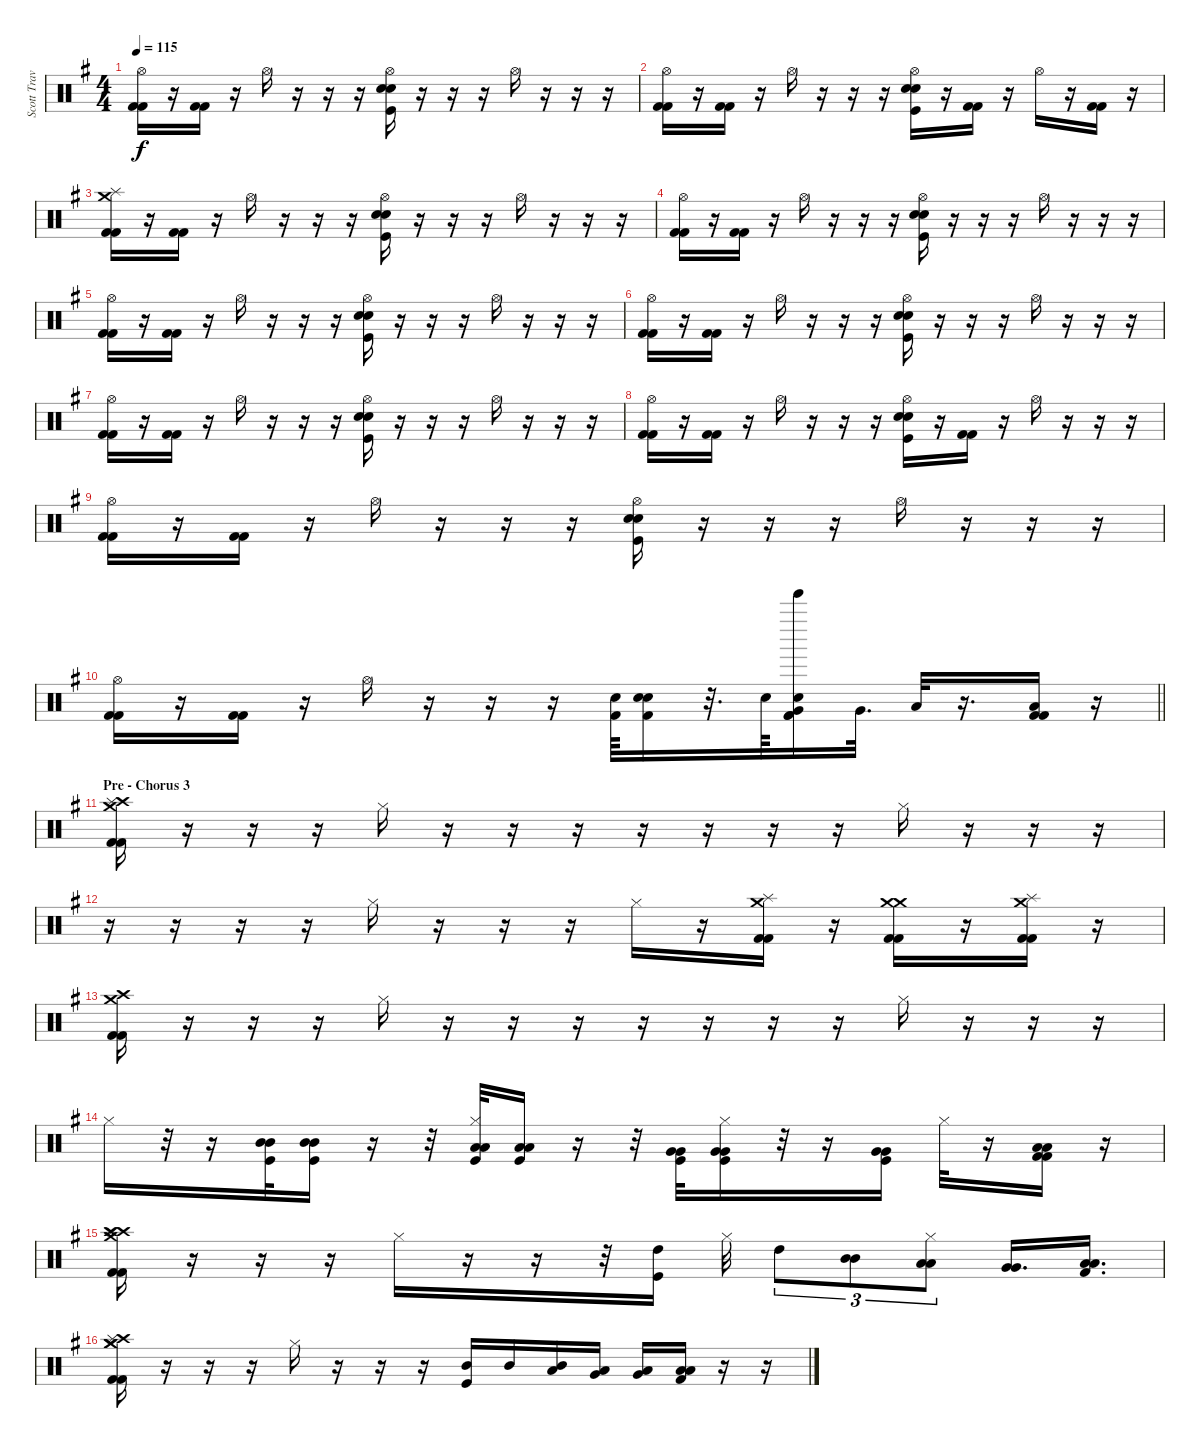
\track ("Scott Travis" "Scott Trav") {instrument percussion}
\staff {score}
\articulation defaults
\ts (4 4)
\tempo 115
\clef neutral
\ks eminor
("Hi-Hat (open)" "Kick (hit) 2" "Kick (hit) 2").16{dy f} r.16 ("Kick (hit) 2" "Kick (hit) 2").16 r.16 "Hi-Hat (open)".16 r.16 r.16 r.16 ("Hi-Hat (open)" "Snare (hit) 2" "Snare (hit) 2" "Kick (hit)").16 r.16 r.16 r.16 "Hi-Hat (open)".16 r.16 r.16 r.16 |
("Hi-Hat (open)" "Kick (hit) 2" "Kick (hit) 2").16 r.16 ("Kick (hit) 2" "Kick (hit) 2").16 r.16 "Hi-Hat (open)".16 r.16 r.16 r.16 ("Hi-Hat (open)" "Snare (hit) 2" "Snare (hit) 2" "Kick (hit)").16 r.16 ("Kick (hit) 2" "Kick (hit) 2").16 r.16 "Hi-Hat (open)".16 r.16 ("Kick (hit) 2" "Kick (hit) 2").16 r.16 |
("Crash medium (hit)" "Splash (hit)" "Kick (hit) 2" "Kick (hit) 2").16 r.16 ("Kick (hit) 2" "Kick (hit) 2").16 r.16 "Hi-Hat (open)".16 r.16 r.16 r.16 ("Hi-Hat (open)" "Snare (hit) 2" "Snare (hit) 2" "Kick (hit)").16 r.16 r.16 r.16 "Hi-Hat (open)".16 r.16 r.16 r.16 |
("Hi-Hat (open)" "Kick (hit) 2" "Kick (hit) 2").16 r.16 ("Kick (hit) 2" "Kick (hit) 2").16 r.16 "Hi-Hat (open)".16 r.16 r.16 r.16 ("Hi-Hat (open)" "Snare (hit) 2" "Snare (hit) 2" "Kick (hit)").16 r.16 r.16 r.16 "Hi-Hat (open)".16 r.16 r.16 r.16 |
("Hi-Hat (open)" "Kick (hit) 2" "Kick (hit) 2").16 r.16 ("Kick (hit) 2" "Kick (hit) 2").16 r.16 "Hi-Hat (open)".16 r.16 r.16 r.16 ("Hi-Hat (open)" "Snare (hit) 2" "Snare (hit) 2" "Kick (hit)").16 r.16 r.16 r.16 "Hi-Hat (open)".16 r.16 r.16 r.16 |
("Hi-Hat (open)" "Kick (hit) 2" "Kick (hit) 2").16 r.16 ("Kick (hit) 2" "Kick (hit) 2").16 r.16 "Hi-Hat (open)".16 r.16 r.16 r.16 ("Hi-Hat (open)" "Snare (hit) 2" "Snare (hit) 2" "Kick (hit)").16 r.16 r.16 r.16 "Hi-Hat (open)".16 r.16 r.16 r.16 |
("Hi-Hat (open)" "Kick (hit) 2" "Kick (hit) 2").16 r.16 ("Kick (hit) 2" "Kick (hit) 2").16 r.16 "Hi-Hat (open)".16 r.16 r.16 r.16 ("Hi-Hat (open)" "Snare (hit) 2" "Snare (hit) 2" "Kick (hit)").16 r.16 r.16 r.16 "Hi-Hat (open)".16 r.16 r.16 r.16 |
("Hi-Hat (open)" "Kick (hit) 2" "Kick (hit) 2").16 r.16 ("Kick (hit) 2" "Kick (hit) 2").16 r.16 "Hi-Hat (open)".16 r.16 r.16 r.16 ("Hi-Hat (open)" "Snare (hit) 2" "Snare (hit) 2" "Kick (hit)").16 r.16 ("Kick (hit) 2" "Kick (hit) 2").16 r.16 "Hi-Hat (open)".16 r.16 r.16 r.16 |
("Hi-Hat (open)" "Kick (hit) 2" "Kick (hit) 2").16 r.16 ("Kick (hit) 2" "Kick (hit) 2").16 r.16 "Hi-Hat (open)".16 r.16 r.16 r.16 ("Hi-Hat (open)" "Snare (hit) 2" "Snare (hit) 2" "Kick (hit)").16 r.16 r.16 r.16 "Hi-Hat (open)".16 r.16 r.16 r.16 |
\barLineRight lightlight
("Hi-Hat (open)" "Kick (hit) 2" "Kick (hit) 2").16 r.16 ("Kick (hit) 2" "Kick (hit) 2").16 r.16 "Hi-Hat (open)".16 r.16 r.16 r.16 ("Snare (hit) 2" "Kick (hit) 2").64 ("Snare (hit) 2" "Snare (hit) 2" "Kick (hit) 2").16 r.32{d} "Snare (hit) 2".64 ("Very Low Tom (hit)" "Snare (hit) 2" "Tinkle Bell (hit)" "Kick (hit) 2" "Kick (hit) 2").16 "Very Low Tom (hit)".32{d} "Low Floor Tom (hit)".32 r.16{d} ("Low Floor Tom (hit)" "Kick (hit) 2" "Kick (hit) 2").16 r.16 |
\section ("" "Pre - Chorus 3")
("Crash high (hit)" "Crash medium (hit)" "Splash (hit)" "Kick (hit) 2" "Kick (hit) 2").16 r.16 r.16 r.16 "Hi-Hat (closed)".16 r.16 r.16 r.16 r.16 r.16 r.16 r.16 "Hi-Hat (closed)".16 r.16 r.16 r.16 |
r.16 r.16 r.16 r.16 "Hi-Hat (closed)".16 r.16 r.16 r.16 "Hi-Hat (closed)".16 r.16 ("Splash (hit)" "Crash medium (hit)" "Kick (hit) 2" "Kick (hit) 2").16 r.16 ("Crash medium (hit)" "Crash medium (hit)" "Kick (hit) 2" "Kick (hit) 2").16 r.16 ("Crash medium (hit)" "Splash (hit)" "Kick (hit) 2" "Kick (hit) 2").16 r.16 |
("Crash medium (hit)" "Crash high (hit)" "Kick (hit) 2" "Kick (hit) 2").16 r.16 r.16 r.16 "Hi-Hat (closed)".16 r.16 r.16 r.16 r.16 r.16 r.16 r.16 "Hi-Hat (closed)".16 r.16 r.16 r.16 |
"Hi-Hat (closed)".16 r.32 r.16 ("Mid Tom (hit)" "Mid Tom (hit)" "Kick (hit)").32 ("Mid Tom (hit)" "Mid Tom (hit)" "Kick (hit)").16 r.16 r.32 ("Hi-Hat (closed)" "Low Tom (hit)" "Low Tom (hit)" "Kick (hit)").32 ("Low Tom (hit)" "Low Tom (hit)" "Kick (hit)").16 r.16 r.32 ("Very Low Tom (hit)" "Very Low Tom (hit)" "Kick (hit)").32 ("Hi-Hat (closed)" "Very Low Tom (hit)" "Very Low Tom (hit)" "Kick (hit)").16 r.32 r.16 ("Very Low Tom (hit)" "Very Low Tom (hit)" "Kick (hit)").16 "Hi-Hat (closed)".32 r.16 ("Low Floor Tom (hit)" "Low Floor Tom (hit)" "Kick (hit) 2" "Kick (hit) 2").16 r.16 |
("Crash high (hit)" "Crash high (hit)" "Crash medium (hit)" "Splash (hit)" "Kick (hit) 2" "Kick (hit) 2").16 r.16 r.16 r.16 "Hi-Hat (closed)".16 r.16 r.16 r.32 ("High Tom (hit)" "Kick (hit)").16 "Hi-Hat (closed)".32 "High Tom (hit)".8{tu (3 2)} ("Mid Tom (hit)" "Mid Tom (hit)").8{tu (3 2)} ("Hi-Hat (closed)" "Low Tom (hit)" "Low Tom (hit)").8{tu (3 2)} ("Very Low Tom (hit)" "Very Low Tom (hit)").16{d} ("Low Floor Tom (hit)" "Low Floor Tom (hit)" "Kick (hit) 2").16{d} |
("Crash high (hit)" "Crash medium (hit)" "Crash medium (hit)" "Splash (hit)" "Kick (hit) 2" "Kick (hit) 2").16 r.16 r.16 r.16 "Hi-Hat (closed)".16 r.16 r.16 r.16 ("Mid Tom (hit)" "Kick (hit)").16 "Mid Tom (hit)".16 ("Low Tom (hit)" "Mid Tom (hit)").16 ("Very Low Tom (hit)" "Low Tom (hit)").16 ("Low Floor Tom (hit)" "Very Low Tom (hit)").16 ("Low Floor Tom (hit)" "Low Floor Tom (hit)" "Kick (hit) 2").16 r.16 r.16
